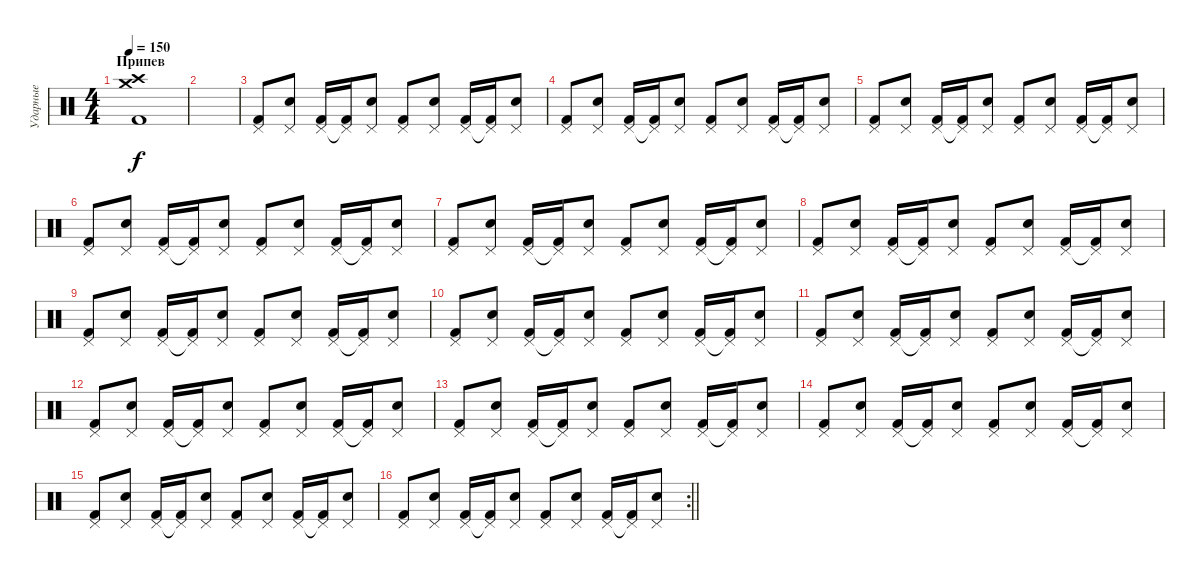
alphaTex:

\track ("Ударные" "Ударные") {instrument percussion}
\staff {score}
\articulation defaults
\ts (4 4)
\section ("" "Припев")
\tempo 150
\clef neutral
\ks c
("Crash medium (hit)" "Crash high (hit)" "Kick (hit) 2").1{dy f} |
|
("Pedal Hi-Hat (hit)" "Kick (hit) 2").8 ("Pedal Hi-Hat (hit)" "Snare (hit) 2").8 ("Pedal Hi-Hat (hit)" "Kick (hit) 2").16 ("Pedal Hi-Hat (hit)"{t} "Kick (hit) 2").16 ("Pedal Hi-Hat (hit)" "Snare (hit) 2").8 ("Pedal Hi-Hat (hit)" "Kick (hit) 2").8 ("Pedal Hi-Hat (hit)" "Snare (hit) 2").8 ("Pedal Hi-Hat (hit)" "Kick (hit) 2").16 ("Pedal Hi-Hat (hit)"{t} "Kick (hit) 2").16 ("Pedal Hi-Hat (hit)" "Snare (hit) 2").8 |
("Pedal Hi-Hat (hit)" "Kick (hit) 2").8 ("Pedal Hi-Hat (hit)" "Snare (hit) 2").8 ("Pedal Hi-Hat (hit)" "Kick (hit) 2").16 ("Pedal Hi-Hat (hit)"{t} "Kick (hit) 2").16 ("Pedal Hi-Hat (hit)" "Snare (hit) 2").8 ("Pedal Hi-Hat (hit)" "Kick (hit) 2").8 ("Pedal Hi-Hat (hit)" "Snare (hit) 2").8 ("Pedal Hi-Hat (hit)" "Kick (hit) 2").16 ("Pedal Hi-Hat (hit)"{t} "Kick (hit) 2").16 ("Pedal Hi-Hat (hit)" "Snare (hit) 2").8 |
("Pedal Hi-Hat (hit)" "Kick (hit) 2").8 ("Pedal Hi-Hat (hit)" "Snare (hit) 2").8 ("Pedal Hi-Hat (hit)" "Kick (hit) 2").16 ("Pedal Hi-Hat (hit)"{t} "Kick (hit) 2").16 ("Pedal Hi-Hat (hit)" "Snare (hit) 2").8 ("Pedal Hi-Hat (hit)" "Kick (hit) 2").8 ("Pedal Hi-Hat (hit)" "Snare (hit) 2").8 ("Pedal Hi-Hat (hit)" "Kick (hit) 2").16 ("Pedal Hi-Hat (hit)"{t} "Kick (hit) 2").16 ("Pedal Hi-Hat (hit)" "Snare (hit) 2").8 |
("Pedal Hi-Hat (hit)" "Kick (hit) 2").8 ("Pedal Hi-Hat (hit)" "Snare (hit) 2").8 ("Pedal Hi-Hat (hit)" "Kick (hit) 2").16 ("Pedal Hi-Hat (hit)"{t} "Kick (hit) 2").16 ("Pedal Hi-Hat (hit)" "Snare (hit) 2").8 ("Pedal Hi-Hat (hit)" "Kick (hit) 2").8 ("Pedal Hi-Hat (hit)" "Snare (hit) 2").8 ("Pedal Hi-Hat (hit)" "Kick (hit) 2").16 ("Pedal Hi-Hat (hit)"{t} "Kick (hit) 2").16 ("Pedal Hi-Hat (hit)" "Snare (hit) 2").8 |
("Pedal Hi-Hat (hit)" "Kick (hit) 2").8 ("Pedal Hi-Hat (hit)" "Snare (hit) 2").8 ("Pedal Hi-Hat (hit)" "Kick (hit) 2").16 ("Pedal Hi-Hat (hit)"{t} "Kick (hit) 2").16 ("Pedal Hi-Hat (hit)" "Snare (hit) 2").8 ("Pedal Hi-Hat (hit)" "Kick (hit) 2").8 ("Pedal Hi-Hat (hit)" "Snare (hit) 2").8 ("Pedal Hi-Hat (hit)" "Kick (hit) 2").16 ("Pedal Hi-Hat (hit)"{t} "Kick (hit) 2").16 ("Pedal Hi-Hat (hit)" "Snare (hit) 2").8 |
("Pedal Hi-Hat (hit)" "Kick (hit) 2").8 ("Pedal Hi-Hat (hit)" "Snare (hit) 2").8 ("Pedal Hi-Hat (hit)" "Kick (hit) 2").16 ("Pedal Hi-Hat (hit)"{t} "Kick (hit) 2").16 ("Pedal Hi-Hat (hit)" "Snare (hit) 2").8 ("Pedal Hi-Hat (hit)" "Kick (hit) 2").8 ("Pedal Hi-Hat (hit)" "Snare (hit) 2").8 ("Pedal Hi-Hat (hit)" "Kick (hit) 2").16 ("Pedal Hi-Hat (hit)"{t} "Kick (hit) 2").16 ("Pedal Hi-Hat (hit)" "Snare (hit) 2").8 |
("Pedal Hi-Hat (hit)" "Kick (hit) 2").8 ("Pedal Hi-Hat (hit)" "Snare (hit) 2").8 ("Pedal Hi-Hat (hit)" "Kick (hit) 2").16 ("Pedal Hi-Hat (hit)"{t} "Kick (hit) 2").16 ("Pedal Hi-Hat (hit)" "Snare (hit) 2").8 ("Pedal Hi-Hat (hit)" "Kick (hit) 2").8 ("Pedal Hi-Hat (hit)" "Snare (hit) 2").8 ("Pedal Hi-Hat (hit)" "Kick (hit) 2").16 ("Pedal Hi-Hat (hit)"{t} "Kick (hit) 2").16 ("Pedal Hi-Hat (hit)" "Snare (hit) 2").8 |
("Pedal Hi-Hat (hit)" "Kick (hit) 2").8 ("Pedal Hi-Hat (hit)" "Snare (hit) 2").8 ("Pedal Hi-Hat (hit)" "Kick (hit) 2").16 ("Pedal Hi-Hat (hit)"{t} "Kick (hit) 2").16 ("Pedal Hi-Hat (hit)" "Snare (hit) 2").8 ("Pedal Hi-Hat (hit)" "Kick (hit) 2").8 ("Pedal Hi-Hat (hit)" "Snare (hit) 2").8 ("Pedal Hi-Hat (hit)" "Kick (hit) 2").16 ("Pedal Hi-Hat (hit)"{t} "Kick (hit) 2").16 ("Pedal Hi-Hat (hit)" "Snare (hit) 2").8 |
("Pedal Hi-Hat (hit)" "Kick (hit) 2").8 ("Pedal Hi-Hat (hit)" "Snare (hit) 2").8 ("Pedal Hi-Hat (hit)" "Kick (hit) 2").16 ("Pedal Hi-Hat (hit)"{t} "Kick (hit) 2").16 ("Pedal Hi-Hat (hit)" "Snare (hit) 2").8 ("Pedal Hi-Hat (hit)" "Kick (hit) 2").8 ("Pedal Hi-Hat (hit)" "Snare (hit) 2").8 ("Pedal Hi-Hat (hit)" "Kick (hit) 2").16 ("Pedal Hi-Hat (hit)"{t} "Kick (hit) 2").16 ("Pedal Hi-Hat (hit)" "Snare (hit) 2").8 |
("Pedal Hi-Hat (hit)" "Kick (hit) 2").8 ("Pedal Hi-Hat (hit)" "Snare (hit) 2").8 ("Pedal Hi-Hat (hit)" "Kick (hit) 2").16 ("Pedal Hi-Hat (hit)"{t} "Kick (hit) 2").16 ("Pedal Hi-Hat (hit)" "Snare (hit) 2").8 ("Pedal Hi-Hat (hit)" "Kick (hit) 2").8 ("Pedal Hi-Hat (hit)" "Snare (hit) 2").8 ("Pedal Hi-Hat (hit)" "Kick (hit) 2").16 ("Pedal Hi-Hat (hit)"{t} "Kick (hit) 2").16 ("Pedal Hi-Hat (hit)" "Snare (hit) 2").8 |
("Pedal Hi-Hat (hit)" "Kick (hit) 2").8 ("Pedal Hi-Hat (hit)" "Snare (hit) 2").8 ("Pedal Hi-Hat (hit)" "Kick (hit) 2").16 ("Pedal Hi-Hat (hit)"{t} "Kick (hit) 2").16 ("Pedal Hi-Hat (hit)" "Snare (hit) 2").8 ("Pedal Hi-Hat (hit)" "Kick (hit) 2").8 ("Pedal Hi-Hat (hit)" "Snare (hit) 2").8 ("Pedal Hi-Hat (hit)" "Kick (hit) 2").16 ("Pedal Hi-Hat (hit)"{t} "Kick (hit) 2").16 ("Pedal Hi-Hat (hit)" "Snare (hit) 2").8 |
("Pedal Hi-Hat (hit)" "Kick (hit) 2").8 ("Pedal Hi-Hat (hit)" "Snare (hit) 2").8 ("Pedal Hi-Hat (hit)" "Kick (hit) 2").16 ("Pedal Hi-Hat (hit)"{t} "Kick (hit) 2").16 ("Pedal Hi-Hat (hit)" "Snare (hit) 2").8 ("Pedal Hi-Hat (hit)" "Kick (hit) 2").8 ("Pedal Hi-Hat (hit)" "Snare (hit) 2").8 ("Pedal Hi-Hat (hit)" "Kick (hit) 2").16 ("Pedal Hi-Hat (hit)"{t} "Kick (hit) 2").16 ("Pedal Hi-Hat (hit)" "Snare (hit) 2").8 |
("Pedal Hi-Hat (hit)" "Kick (hit) 2").8 ("Pedal Hi-Hat (hit)" "Snare (hit) 2").8 ("Pedal Hi-Hat (hit)" "Kick (hit) 2").16 ("Pedal Hi-Hat (hit)"{t} "Kick (hit) 2").16 ("Pedal Hi-Hat (hit)" "Snare (hit) 2").8 ("Pedal Hi-Hat (hit)" "Kick (hit) 2").8 ("Pedal Hi-Hat (hit)" "Snare (hit) 2").8 ("Pedal Hi-Hat (hit)" "Kick (hit) 2").16 ("Pedal Hi-Hat (hit)"{t} "Kick (hit) 2").16 ("Pedal Hi-Hat (hit)" "Snare (hit) 2").8 |
\rc 2
\barLineRight lightlight
("Pedal Hi-Hat (hit)" "Kick (hit) 2").8 ("Pedal Hi-Hat (hit)" "Snare (hit) 2").8 ("Pedal Hi-Hat (hit)" "Kick (hit) 2").16 ("Pedal Hi-Hat (hit)"{t} "Kick (hit) 2").16 ("Pedal Hi-Hat (hit)" "Snare (hit) 2").8 ("Pedal Hi-Hat (hit)" "Kick (hit) 2").8 ("Pedal Hi-Hat (hit)" "Snare (hit) 2").8 ("Pedal Hi-Hat (hit)" "Kick (hit) 2").16 ("Pedal Hi-Hat (hit)"{t} "Kick (hit) 2").16 ("Pedal Hi-Hat (hit)" "Snare (hit) 2").8
